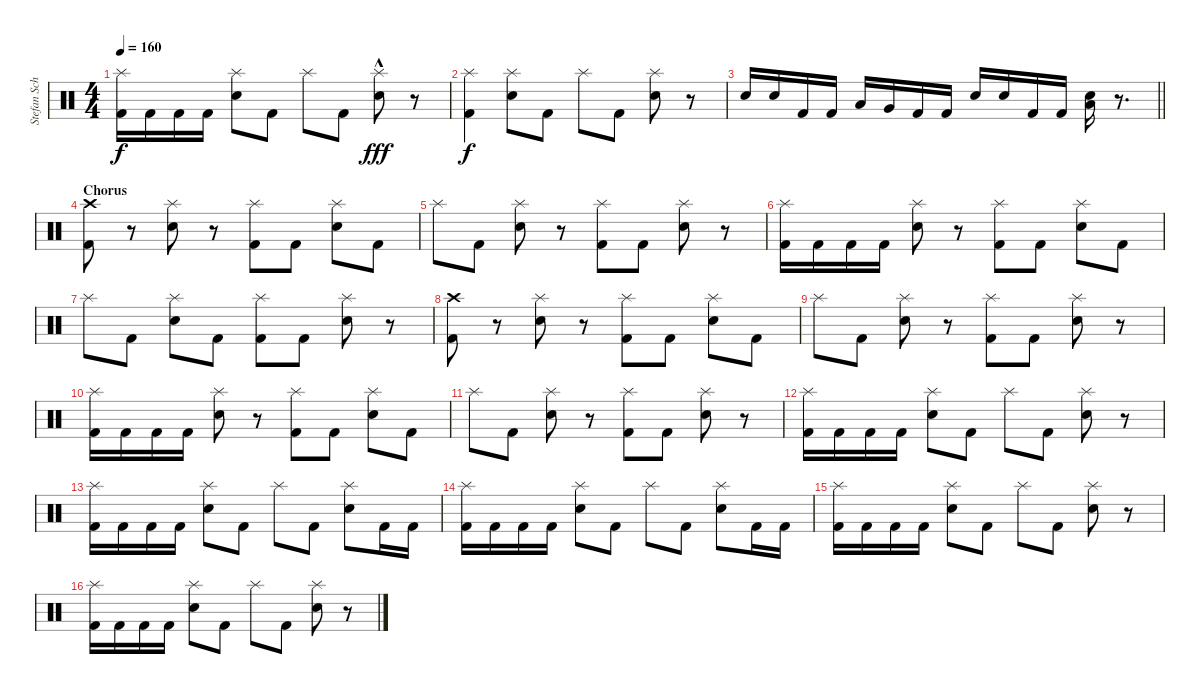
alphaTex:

\track ("Stefan Schwarzmann" "Stefan Sch") {instrument percussion}
\staff {score}
\articulation defaults
\ts (4 4)
\tempo 160
\clef neutral
\ks c
("Splash (hit)" "Kick (hit) 2").16{dy f} "Kick (hit) 2".16 "Kick (hit) 2".16 "Kick (hit) 2".16 ("Splash (hit)" "Snare (hit) 2").8 "Kick (hit) 2".8 "Splash (hit)".8 "Kick (hit) 2".8 ("Splash (hit)"{hac} "Snare (hit) 2").8{dy fff} r.8 |
("Splash (hit)" "Kick (hit) 2").4{dy f} ("Splash (hit)" "Snare (hit) 2").8 "Kick (hit) 2".8 "Splash (hit)".8 "Kick (hit) 2".8 ("Splash (hit)" "Snare (hit) 2").8 r.8 |
\barLineRight lightlight "Snare (hit) 2".16 "Snare (hit) 2".16 "Kick (hit) 2".16 "Kick (hit) 2".16 "Low Tom (hit)".16 "Very Low Tom (hit)".16 "Kick (hit) 2".16 "Kick (hit) 2".16 "Snare (hit) 2".16 "Snare (hit) 2".16 "Kick (hit) 2".16 "Kick (hit) 2".16
("Low Floor Tom (hit)" "Snare (hit) 2").16 r.8{d} |
\section ("" "Chorus")
("Crash high (hit)" "Kick (hit) 2").8 r.8 ("Splash (hit)" "Snare (hit) 2").8 r.8 ("Splash (hit)" "Kick (hit) 2").8 "Kick (hit) 2".8 ("Splash (hit)" "Snare (hit) 2").8 "Kick (hit) 2".8 |
"Splash (hit)".8 "Kick (hit) 2".8 ("Splash (hit)" "Snare (hit) 2").8 r.8 ("Splash (hit)" "Kick (hit) 2").8 "Kick (hit) 2".8 ("Splash (hit)" "Snare (hit) 2").8 r.8 |
("Splash (hit)" "Kick (hit) 2").16 "Kick (hit) 2".16 "Kick (hit) 2".16 "Kick (hit) 2".16 ("Splash (hit)" "Snare (hit) 2").8 r.8 ("Splash (hit)" "Kick (hit) 2").8 "Kick (hit) 2".8 ("Splash (hit)" "Snare (hit) 2").8 "Kick (hit) 2".8 |
"Splash (hit)".8 "Kick (hit) 2".8 ("Splash (hit)" "Snare (hit) 2").8 "Kick (hit) 2".8 ("Splash (hit)" "Kick (hit) 2").8 "Kick (hit) 2".8 ("Splash (hit)" "Snare (hit) 2").8 r.8 |
("Crash high (hit)" "Kick (hit) 2").8 r.8 ("Splash (hit)" "Snare (hit) 2").8 r.8 ("Splash (hit)" "Kick (hit) 2").8 "Kick (hit) 2".8 ("Splash (hit)" "Snare (hit) 2").8 "Kick (hit) 2".8 |
"Splash (hit)".8 "Kick (hit) 2".8 ("Splash (hit)" "Snare (hit) 2").8 r.8 ("Splash (hit)" "Kick (hit) 2").8 "Kick (hit) 2".8 ("Splash (hit)" "Snare (hit) 2").8 r.8 |
("Splash (hit)" "Kick (hit) 2").16 "Kick (hit) 2".16 "Kick (hit) 2".16 "Kick (hit) 2".16 ("Splash (hit)" "Snare (hit) 2").8 r.8 ("Splash (hit)" "Kick (hit) 2").8 "Kick (hit) 2".8 ("Splash (hit)" "Snare (hit) 2").8 "Kick (hit) 2".8 |
"Splash (hit)".8 "Kick (hit) 2".8 ("Splash (hit)" "Snare (hit) 2").8 r.8 ("Splash (hit)" "Kick (hit) 2").8 "Kick (hit) 2".8 ("Splash (hit)" "Snare (hit) 2").8 r.8 |
("Splash (hit)" "Kick (hit) 2").16 "Kick (hit) 2".16 "Kick (hit) 2".16 "Kick (hit) 2".16 ("Splash (hit)" "Snare (hit) 2").8 "Kick (hit) 2".8 "Splash (hit)".8 "Kick (hit) 2".8 ("Splash (hit)" "Snare (hit) 2").8 r.8 |
("Splash (hit)" "Kick (hit) 2").16 "Kick (hit) 2".16 "Kick (hit) 2".16 "Kick (hit) 2".16 ("Splash (hit)" "Snare (hit) 2").8 "Kick (hit) 2".8 "Splash (hit)".8 "Kick (hit) 2".8 ("Splash (hit)" "Snare (hit) 2").8 "Kick (hit) 2".16 "Kick (hit) 2".16 |
("Splash (hit)" "Kick (hit) 2").16 "Kick (hit) 2".16 "Kick (hit) 2".16 "Kick (hit) 2".16 ("Splash (hit)" "Snare (hit) 2").8 "Kick (hit) 2".8 "Splash (hit)".8 "Kick (hit) 2".8 ("Splash (hit)" "Snare (hit) 2").8 "Kick (hit) 2".16 "Kick (hit) 2".16 |
("Splash (hit)" "Kick (hit) 2").16 "Kick (hit) 2".16 "Kick (hit) 2".16 "Kick (hit) 2".16 ("Splash (hit)" "Snare (hit) 2").8 "Kick (hit) 2".8 "Splash (hit)".8 "Kick (hit) 2".8 ("Splash (hit)" "Snare (hit) 2").8 r.8 |
("Splash (hit)" "Kick (hit) 2").16 "Kick (hit) 2".16 "Kick (hit) 2".16 "Kick (hit) 2".16 ("Splash (hit)" "Snare (hit) 2").8 "Kick (hit) 2".8 "Splash (hit)".8 "Kick (hit) 2".8 ("Splash (hit)" "Snare (hit) 2").8 r.8
